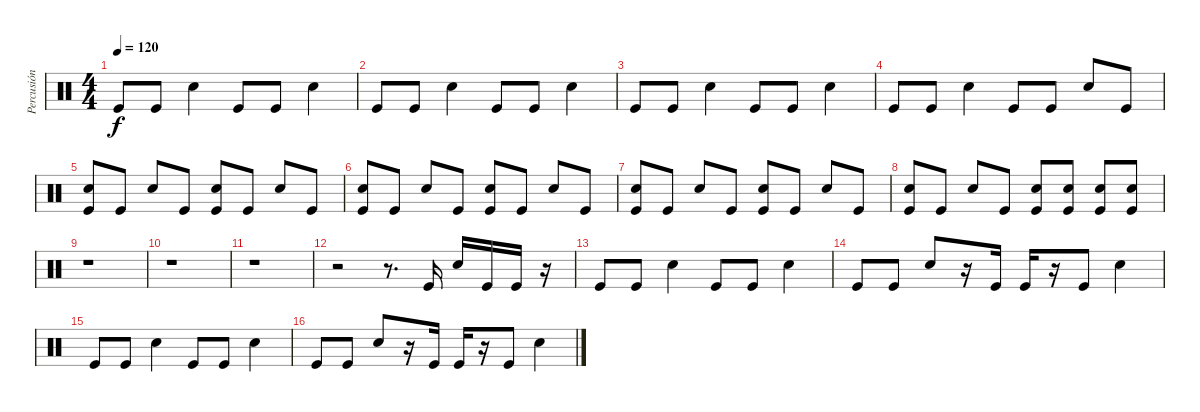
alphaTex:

\track ("Percusión" "Percusión") {instrument percussion}
\staff {score}
\articulation defaults
\ts (4 4)
\tempo 120
\clef neutral
\ks c "Kick (hit)".8{dy f} "Kick (hit)".8 "Snare (hit) 2".4 "Kick (hit)".8 "Kick (hit)".8 "Snare (hit) 2".4
|
"Kick (hit)".8 "Kick (hit)".8 "Snare (hit) 2".4 "Kick (hit)".8 "Kick (hit)".8 "Snare (hit) 2".4 |
"Kick (hit)".8 "Kick (hit)".8 "Snare (hit) 2".4 "Kick (hit)".8 "Kick (hit)".8 "Snare (hit) 2".4 |
"Kick (hit)".8 "Kick (hit)".8 "Snare (hit) 2".4 "Kick (hit)".8 "Kick (hit)".8 "Snare (hit) 2".8 "Kick (hit)".8 |
("Snare (hit) 2" "Kick (hit)").8 "Kick (hit)".8 "Snare (hit) 2".8 "Kick (hit)".8 ("Snare (hit) 2" "Kick (hit)").8 "Kick (hit)".8 "Snare (hit) 2".8 "Kick (hit)".8 |
("Snare (hit) 2" "Kick (hit)").8 "Kick (hit)".8 "Snare (hit) 2".8 "Kick (hit)".8 ("Snare (hit) 2" "Kick (hit)").8 "Kick (hit)".8 "Snare (hit) 2".8 "Kick (hit)".8 |
("Snare (hit) 2" "Kick (hit)").8 "Kick (hit)".8 "Snare (hit) 2".8 "Kick (hit)".8 ("Snare (hit) 2" "Kick (hit)").8 "Kick (hit)".8 "Snare (hit) 2".8 "Kick (hit)".8 |
("Snare (hit) 2" "Kick (hit)").8 "Kick (hit)".8 "Snare (hit) 2".8 "Kick (hit)".8 ("Snare (hit) 2" "Kick (hit)").8 ("Snare (hit) 2" "Kick (hit)").8 ("Snare (hit) 2" "Kick (hit)").8 ("Snare (hit) 2" "Kick (hit)").8 |
r.1 |
r.1 |
r.1 |
r.2 r.8{d} "Kick (hit)".16 "Snare (hit) 2".16 "Kick (hit)".16 "Kick (hit)".16 r.16 |
"Kick (hit)".8 "Kick (hit)".8 "Snare (hit) 2".4 "Kick (hit)".8 "Kick (hit)".8 "Snare (hit) 2".4 |
"Kick (hit)".8 "Kick (hit)".8 "Snare (hit) 2".8 r.16 "Kick (hit)".16 "Kick (hit)".16 r.16 "Kick (hit)".8 "Snare (hit) 2".4 |
"Kick (hit)".8 "Kick (hit)".8 "Snare (hit) 2".4 "Kick (hit)".8 "Kick (hit)".8 "Snare (hit) 2".4 |
"Kick (hit)".8 "Kick (hit)".8 "Snare (hit) 2".8 r.16 "Kick (hit)".16 "Kick (hit)".16 r.16 "Kick (hit)".8 "Snare (hit) 2".4
